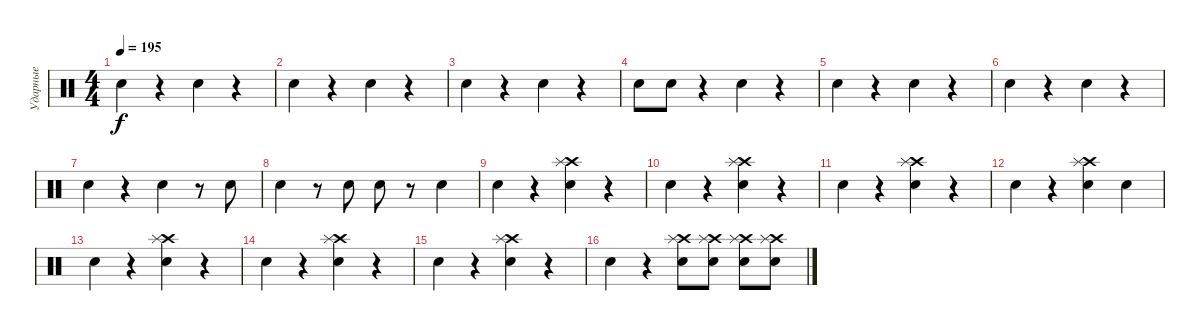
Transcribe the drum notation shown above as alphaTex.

\track ("Ударные" "Ударные") {instrument percussion}
\staff {score}
\articulation defaults
\ts (4 4)
\tempo 195
\clef neutral
\ks c "Snare (hit) 2".4{dy f}
r.4 "Snare (hit) 2".4 r.4 |
"Snare (hit) 2".4 r.4 "Snare (hit) 2".4 r.4 |
"Snare (hit) 2".4 r.4 "Snare (hit) 2".4 r.4 |
"Snare (hit) 2".8 "Snare (hit) 2".8 r.4 "Snare (hit) 2".4 r.4 |
"Snare (hit) 2".4 r.4 "Snare (hit) 2".4 r.4 |
"Snare (hit) 2".4 r.4 "Snare (hit) 2".4 r.4 |
"Snare (hit) 2".4 r.4 "Snare (hit) 2".4 r.8 "Snare (hit) 2".8 |
"Snare (hit) 2".4 r.8 "Snare (hit) 2".8 "Snare (hit) 2".8 r.8 "Snare (hit) 2".4 |
"Snare (hit) 2".4 r.4 ("Snare (hit) 2" "Crash high (hit)" "Splash (hit)").4 r.4 |
"Snare (hit) 2".4 r.4 ("Snare (hit) 2" "Crash high (hit)" "Splash (hit)").4 r.4 |
"Snare (hit) 2".4 r.4 ("Snare (hit) 2" "Crash high (hit)" "Splash (hit)").4 r.4 |
"Snare (hit) 2".4 r.4 ("Snare (hit) 2" "Crash high (hit)" "Splash (hit)").4 "Snare (hit) 2".4 |
"Snare (hit) 2".4 r.4 ("Snare (hit) 2" "Crash high (hit)" "Splash (hit)").4 r.4 |
"Snare (hit) 2".4 r.4 ("Snare (hit) 2" "Crash high (hit)" "Splash (hit)").4 r.4 |
"Snare (hit) 2".4 r.4 ("Snare (hit) 2" "Crash high (hit)" "Splash (hit)").4 r.4 |
"Snare (hit) 2".4 r.4 ("Snare (hit) 2" "Crash high (hit)" "Splash (hit)").8 ("Snare (hit) 2" "Crash high (hit)" "Splash (hit)").8 ("Snare (hit) 2" "Crash high (hit)" "Splash (hit)").8 ("Snare (hit) 2" "Crash high (hit)" "Splash (hit)").8
